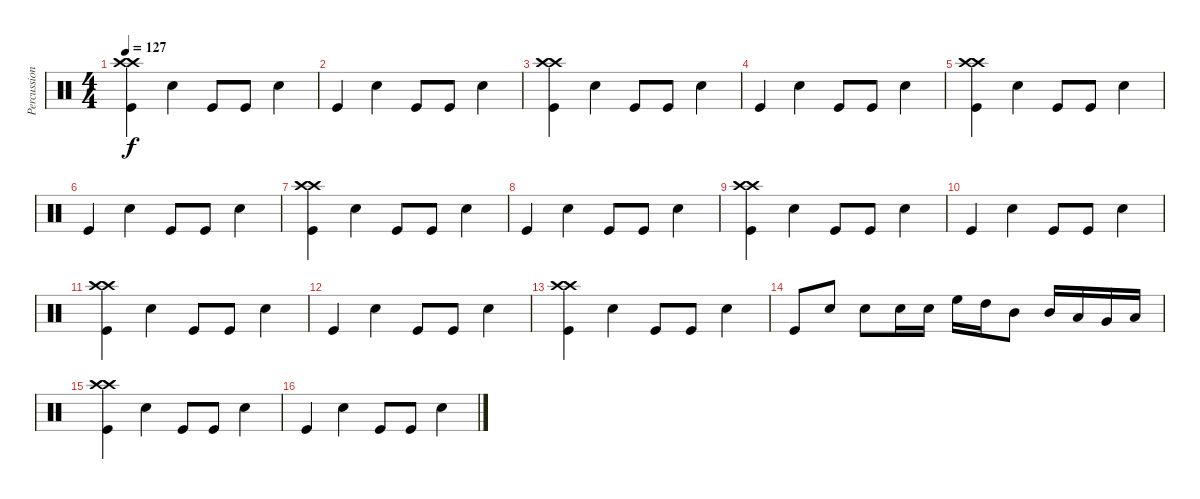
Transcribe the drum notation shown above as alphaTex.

\track ("Percussion" "Percussion") {instrument percussion}
\staff {score}
\articulation defaults
\ts (4 4)
\tempo 127
\clef neutral
\ks c
("Crash high (hit)" "Crash high (hit)" "Kick (hit)").4{dy f} "Snare (hit) 2".4 "Kick (hit)".8 "Kick (hit)".8 "Snare (hit) 2".4 |
"Kick (hit)".4 "Snare (hit) 2".4 "Kick (hit)".8 "Kick (hit)".8 "Snare (hit) 2".4 |
("Crash high (hit)" "Crash high (hit)" "Kick (hit)").4 "Snare (hit) 2".4 "Kick (hit)".8 "Kick (hit)".8 "Snare (hit) 2".4 |
"Kick (hit)".4 "Snare (hit) 2".4 "Kick (hit)".8 "Kick (hit)".8 "Snare (hit) 2".4 |
("Crash high (hit)" "Crash high (hit)" "Kick (hit)").4 "Snare (hit) 2".4 "Kick (hit)".8 "Kick (hit)".8 "Snare (hit) 2".4 |
"Kick (hit)".4 "Snare (hit) 2".4 "Kick (hit)".8 "Kick (hit)".8 "Snare (hit) 2".4 |
("Crash high (hit)" "Crash high (hit)" "Kick (hit)").4 "Snare (hit) 2".4 "Kick (hit)".8 "Kick (hit)".8 "Snare (hit) 2".4 |
"Kick (hit)".4 "Snare (hit) 2".4 "Kick (hit)".8 "Kick (hit)".8 "Snare (hit) 2".4 |
("Crash high (hit)" "Crash high (hit)" "Kick (hit)").4 "Snare (hit) 2".4 "Kick (hit)".8 "Kick (hit)".8 "Snare (hit) 2".4 |
"Kick (hit)".4 "Snare (hit) 2".4 "Kick (hit)".8 "Kick (hit)".8 "Snare (hit) 2".4 |
("Crash high (hit)" "Crash high (hit)" "Kick (hit)").4 "Snare (hit) 2".4 "Kick (hit)".8 "Kick (hit)".8 "Snare (hit) 2".4 |
"Kick (hit)".4 "Snare (hit) 2".4 "Kick (hit)".8 "Kick (hit)".8 "Snare (hit) 2".4 |
("Crash high (hit)" "Crash high (hit)" "Kick (hit)").4 "Snare (hit) 2".4 "Kick (hit)".8 "Kick (hit)".8 "Snare (hit) 2".4 |
"Kick (hit)".8 "Snare (hit) 2".8 "Snare (hit) 2".8 "Snare (hit) 2".16 "Snare (hit) 2".16 "High Floor Tom (hit)".16 "High Tom (hit)".16 "Mid Tom (hit)".8 "Mid Tom (hit)".16 "Low Tom (hit)".16 "Very Low Tom (hit)".16 "Low Floor Tom (hit)".16 |
("Crash high (hit)" "Crash high (hit)" "Kick (hit)").4 "Snare (hit) 2".4 "Kick (hit)".8 "Kick (hit)".8 "Snare (hit) 2".4 |
"Kick (hit)".4 "Snare (hit) 2".4 "Kick (hit)".8 "Kick (hit)".8 "Snare (hit) 2".4
